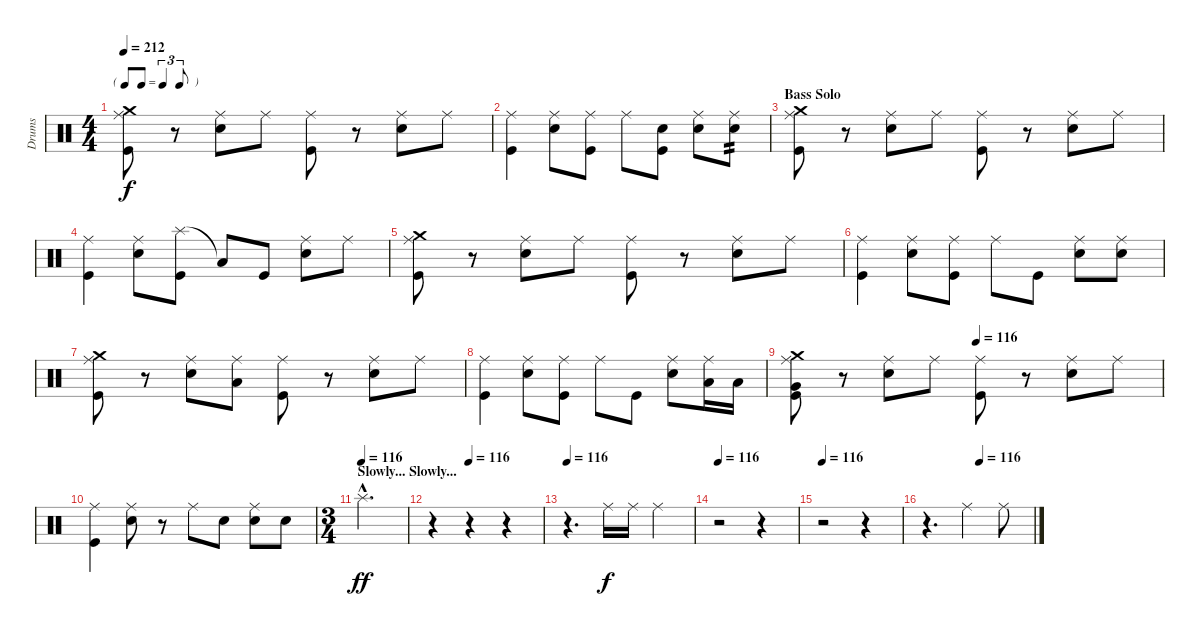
\track ("Drums" "Drums") {instrument percussion}
\staff {score}
\articulation defaults
\ts (4 4)
\tf triplet8th
\tempo 212
\clef neutral
\ks c
("Crash medium (hit)" "Ride (middle)" "Kick (hit)").8{dy f} r.8 ("Ride (middle)" "Electric Snare (hit)").8 "Ride (middle)".8 ("Ride (middle)" "Kick (hit)").8 r.8 ("Ride (middle)" "Electric Snare (hit)").8 "Ride (middle)".8 |
("Ride (middle)" "Kick (hit)").4 ("Ride (middle)" "Electric Snare (hit)").8 ("Ride (middle)" "Kick (hit)").8 "Ride (middle)".8 ("Electric Snare (hit)" "Kick (hit)").8 ("Ride (middle)" "Electric Snare (hit)").8 ("Ride (middle)" "Electric Snare (hit)").8{tp 2} |
\section ("" "Bass Solo")
("Crash medium (hit)" "Ride (middle)" "Kick (hit)").8 r.8 ("Ride (middle)" "Electric Snare (hit)").8 "Ride (middle)".8 ("Ride (middle)" "Kick (hit)").8 r.8 ("Ride (middle)" "Electric Snare (hit)").8 "Ride (middle)".8 |
("Ride (middle)" "Kick (hit)").4 ("Ride (middle)" "Electric Snare (hit)").8 ("Splash (hit)" "Kick (hit)").8 "Low Floor Tom (hit)"{t}.8 "Kick (hit)".8 ("Ride (middle)" "Electric Snare (hit)").8 "Ride (middle)".8 |
("Crash medium (hit)" "Ride (middle)" "Kick (hit)").8 r.8 ("Ride (middle)" "Electric Snare (hit)").8 "Ride (middle)".8 ("Ride (middle)" "Kick (hit)").8 r.8 ("Ride (middle)" "Electric Snare (hit)").8 "Ride (middle)".8 |
("Ride (middle)" "Kick (hit)").4 ("Ride (middle)" "Electric Snare (hit)").8 ("Ride (middle)" "Kick (hit)").8 "Ride (middle)".8 "Kick (hit)".8 ("Ride (middle)" "Electric Snare (hit)").8 ("Ride (middle)" "Electric Snare (hit)").8 |
("Crash medium (hit)" "Ride (middle)" "Kick (hit)").8 r.8 ("Ride (middle)" "Electric Snare (hit)").8 ("Ride (middle)" "Low Tom (hit)").8 ("Ride (middle)" "Kick (hit)").8 r.8 ("Ride (middle)" "Electric Snare (hit)").8 "Ride (middle)".8 |
("Ride (middle)" "Kick (hit)").4 ("Ride (middle)" "Electric Snare (hit)").8 ("Ride (middle)" "Kick (hit)").8 "Ride (middle)".8 "Kick (hit)".8 ("Ride (middle)" "Electric Snare (hit)").8 ("Ride (middle)" "Low Tom (hit)").16 "Low Tom (hit)".16 |
\tempo (116 0.5)
("Crash medium (hit)" "Ride (middle)" "Very Low Tom (hit)" "Kick (hit)").8 r.8 ("Ride (middle)" "Electric Snare (hit)").8 "Ride (middle)".8 ("Ride (middle)" "Kick (hit)").8 r.8 ("Ride (middle)" "Electric Snare (hit)").8 "Ride (middle)".8 |
("Ride (middle)" "Kick (hit)").4 ("Ride (middle)" "Electric Snare (hit)").8 r.8 "Ride (middle)".8 "Electric Snare (hit)".8 ("Ride (middle)" "Electric Snare (hit)").8 "Electric Snare (hit)".8 |
\ts (3 4)
\section ("" "Slowly... Slowly...")
\tempo (116)
"Splash (hit)"{hac}.2{d dy ff} |
\tempo (116 0.3333333333333333)
r.4 r.4 r.4 |
\tempo 116
r.4{d} "Ride (middle)".16{dy f} "Ride (middle)".16 "Ride (middle)".4 |
\tempo 116
r.2 r.4 |
\tempo 116
r.2 r.4 |
\tempo (116 0.5)
r.4{d} "Ride (middle)".4 "Ride (middle)".8
